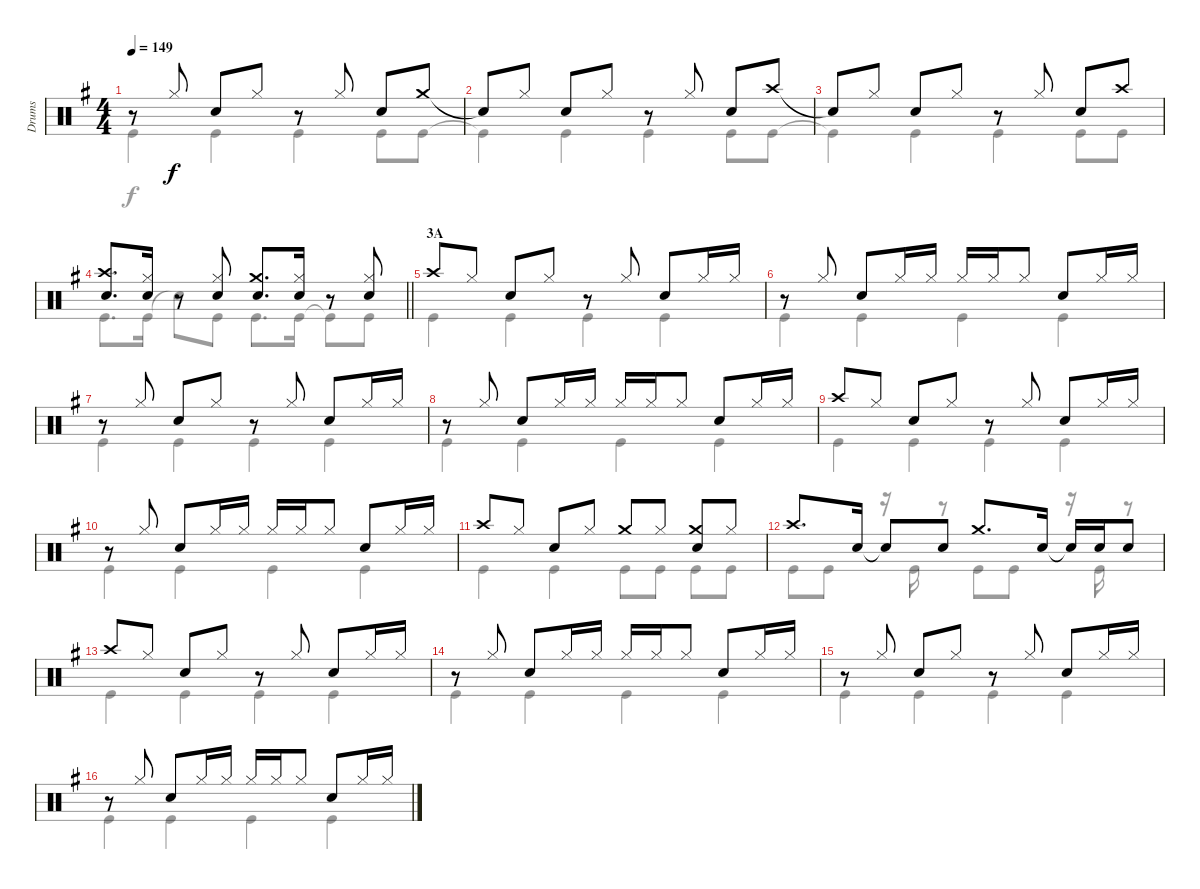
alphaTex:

\track ("Drums" "Drums") {instrument percussion}
\staff {score}
\articulation defaults
\voice
\ts (4 4)
\tempo 149
\clef neutral
\ks g
r.8{dy f} "Hi-Hat (closed)".8 "Snare (hit) 2".8 "Hi-Hat (closed)".8 r.8 "Hi-Hat (closed)".8 "Snare (hit) 2".8 "Crash medium (hit)".8 |
"Snare (hit)"{t}.8 "Hi-Hat (closed)".8 "Snare (hit) 2".8 "Hi-Hat (closed)".8 r.8 "Hi-Hat (closed)".8 "Snare (hit) 2".8 "Crash high (hit)".8 |
"Snare (hit)"{t}.8 "Hi-Hat (closed)".8 "Snare (hit) 2".8 "Hi-Hat (closed)".8 r.8 "Hi-Hat (closed)".8 "Snare (hit) 2".8 "Crash high (hit)".8 |
\barLineRight lightlight
("Crash high (hit)" "Snare (hit) 2").8{d} ("Hi-Hat (closed)" "Snare (hit) 2").16 r.8 ("Hi-Hat (closed)" "Snare (hit) 2").8 ("Crash medium (hit)" "Snare (hit) 2").8{d} ("Hi-Hat (closed)" "Snare (hit) 2").16 r.8 ("Hi-Hat (closed)" "Snare (hit) 2").8 |
\section ("" "3A")
"Crash high (hit)".8 "Hi-Hat (closed)".8 "Snare (hit) 2".8 "Hi-Hat (closed)".8 r.8 "Hi-Hat (closed)".8 "Snare (hit) 2".8 "Hi-Hat (closed)".16 "Hi-Hat (closed)".16 |
r.8 "Hi-Hat (closed)".8 "Snare (hit) 2".8 "Hi-Hat (closed)".16 "Hi-Hat (closed)".16 "Hi-Hat (closed)".16 "Hi-Hat (closed)".16 "Hi-Hat (closed)".8 "Snare (hit) 2".8 "Hi-Hat (closed)".16 "Hi-Hat (closed)".16 |
r.8 "Hi-Hat (closed)".8 "Snare (hit) 2".8 "Hi-Hat (closed)".8 r.8 "Hi-Hat (closed)".8 "Snare (hit) 2".8 "Hi-Hat (closed)".16 "Hi-Hat (closed)".16 |
r.8 "Hi-Hat (closed)".8 "Snare (hit) 2".8 "Hi-Hat (closed)".16 "Hi-Hat (closed)".16 "Hi-Hat (closed)".16 "Hi-Hat (closed)".16 "Hi-Hat (closed)".8 "Snare (hit) 2".8 "Hi-Hat (closed)".16 "Hi-Hat (closed)".16 |
"Crash high (hit)".8 "Hi-Hat (closed)".8 "Snare (hit) 2".8 "Hi-Hat (closed)".8 r.8 "Hi-Hat (closed)".8 "Snare (hit) 2".8 "Hi-Hat (closed)".16 "Hi-Hat (closed)".16 |
r.8 "Hi-Hat (closed)".8 "Snare (hit) 2".8 "Hi-Hat (closed)".16 "Hi-Hat (closed)".16 "Hi-Hat (closed)".16 "Hi-Hat (closed)".16 "Hi-Hat (closed)".8 "Snare (hit) 2".8 "Hi-Hat (closed)".16 "Hi-Hat (closed)".16 |
"Crash high (hit)".8 "Hi-Hat (closed)".8 "Snare (hit) 2".8 "Hi-Hat (closed)".8 "Crash medium (hit)".8 "Hi-Hat (closed)".8 ("Crash medium (hit)" "Snare (hit) 2").8 "Hi-Hat (closed)".8 |
"Crash high (hit)".8{d} "Snare (hit) 2".16 "Snare (hit)"{t}.8 "Snare (hit) 2".8 "Crash medium (hit)".8{d} "Snare (hit) 2".16 "Snare (hit)"{t}.16 "Snare (hit) 2".16 "Snare (hit) 2".8 |
"Crash high (hit)".8 "Hi-Hat (closed)".8 "Snare (hit) 2".8 "Hi-Hat (closed)".8 r.8 "Hi-Hat (closed)".8 "Snare (hit) 2".8 "Hi-Hat (closed)".16 "Hi-Hat (closed)".16 |
r.8 "Hi-Hat (closed)".8 "Snare (hit) 2".8 "Hi-Hat (closed)".16 "Hi-Hat (closed)".16 "Hi-Hat (closed)".16 "Hi-Hat (closed)".16 "Hi-Hat (closed)".8 "Snare (hit) 2".8 "Hi-Hat (closed)".16 "Hi-Hat (closed)".16 |
r.8 "Hi-Hat (closed)".8 "Snare (hit) 2".8 "Hi-Hat (closed)".8 r.8 "Hi-Hat (closed)".8 "Snare (hit) 2".8 "Hi-Hat (closed)".16 "Hi-Hat (closed)".16 |
r.8 "Hi-Hat (closed)".8 "Snare (hit) 2".8 "Hi-Hat (closed)".16 "Hi-Hat (closed)".16 "Hi-Hat (closed)".16 "Hi-Hat (closed)".16 "Hi-Hat (closed)".8 "Snare (hit) 2".8 "Hi-Hat (closed)".16 "Hi-Hat (closed)".16
\voice
\clef neutral
\ottava regular
\simile none
\ks g "Kick (hit)".4{dy f} "Kick (hit)".4 "Kick (hit)".4 "Kick (hit)".8 "Kick (hit)".8
|
"Kick (hit)"{t}.4 "Kick (hit)".4 "Kick (hit)".4 "Kick (hit)".8 "Kick (hit)".8 |
"Kick (hit)"{t}.4 "Kick (hit)".4 "Kick (hit)".4 "Kick (hit)".8 "Kick (hit)".8 |
\barLineRight lightlight "Kick (hit)".8{d} "Kick (hit)".16 "Snare (hit)"{t}.8 "Kick (hit)".8 "Kick (hit)".8{d} "Kick (hit)".16 "Kick (hit)"{t}.8 "Kick (hit)".8
|
"Kick (hit)".4 "Kick (hit)".4 "Kick (hit)".4 "Kick (hit)".4 |
"Kick (hit)".4 "Kick (hit)".4 "Kick (hit)".4 "Kick (hit)".4 |
"Kick (hit)".4 "Kick (hit)".4 "Kick (hit)".4 "Kick (hit)".4 |
"Kick (hit)".4 "Kick (hit)".4 "Kick (hit)".4 "Kick (hit)".4 |
"Kick (hit)".4 "Kick (hit)".4 "Kick (hit)".4 "Kick (hit)".4 |
"Kick (hit)".4 "Kick (hit)".4 "Kick (hit)".4 "Kick (hit)".4 |
"Kick (hit)".4 "Kick (hit)".4 "Kick (hit)".8 "Kick (hit)".8 "Kick (hit)".8 "Kick (hit)".8 |
"Kick (hit)".8 "Kick (hit)".8 r.16 "Kick (hit)".16 r.8 "Kick (hit)".8 "Kick (hit)".8 r.16 "Kick (hit)".16 r.8 |
"Kick (hit)".4 "Kick (hit)".4 "Kick (hit)".4 "Kick (hit)".4 |
"Kick (hit)".4 "Kick (hit)".4 "Kick (hit)".4 "Kick (hit)".4 |
"Kick (hit)".4 "Kick (hit)".4 "Kick (hit)".4 "Kick (hit)".4 |
"Kick (hit)".4 "Kick (hit)".4 "Kick (hit)".4 "Kick (hit)".4
